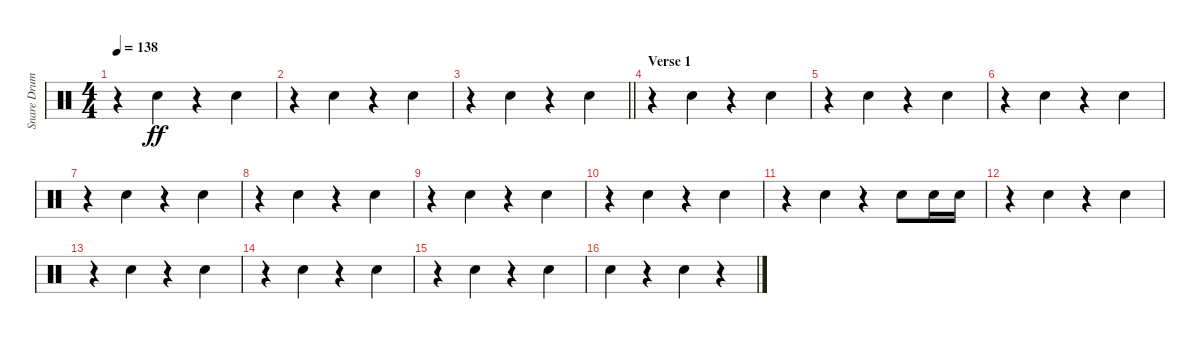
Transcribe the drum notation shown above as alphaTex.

\track ("Snare Drum" "Snare Drum") {instrument percussion}
\staff {score}
\articulation defaults
\ts (4 4)
\tempo 138
\clef neutral
\ks c
r.4{dy ff} "Electric Snare (hit)".4 r.4 "Electric Snare (hit)".4 |
r.4 "Electric Snare (hit)".4 r.4 "Electric Snare (hit)".4 |
\barLineRight lightlight
r.4 "Electric Snare (hit)".4 r.4 "Electric Snare (hit)".4 |
\section ("" "Verse 1")
r.4 "Electric Snare (hit)".4 r.4 "Electric Snare (hit)".4 |
r.4 "Electric Snare (hit)".4 r.4 "Electric Snare (hit)".4 |
r.4 "Electric Snare (hit)".4 r.4 "Electric Snare (hit)".4 |
r.4 "Electric Snare (hit)".4 r.4 "Electric Snare (hit)".4 |
r.4 "Electric Snare (hit)".4 r.4 "Electric Snare (hit)".4 |
r.4 "Electric Snare (hit)".4 r.4 "Electric Snare (hit)".4 |
r.4 "Electric Snare (hit)".4 r.4 "Electric Snare (hit)".4 |
r.4 "Electric Snare (hit)".4 r.4 "Electric Snare (hit)".8 "Electric Snare (hit)".16 "Electric Snare (hit)".16 |
r.4 "Electric Snare (hit)".4 r.4 "Electric Snare (hit)".4 |
r.4 "Electric Snare (hit)".4 r.4 "Electric Snare (hit)".4 |
r.4 "Electric Snare (hit)".4 r.4 "Electric Snare (hit)".4 |
r.4 "Electric Snare (hit)".4 r.4 "Electric Snare (hit)".4 |
"Electric Snare (hit)".4 r.4 "Electric Snare (hit)".4 r.4
